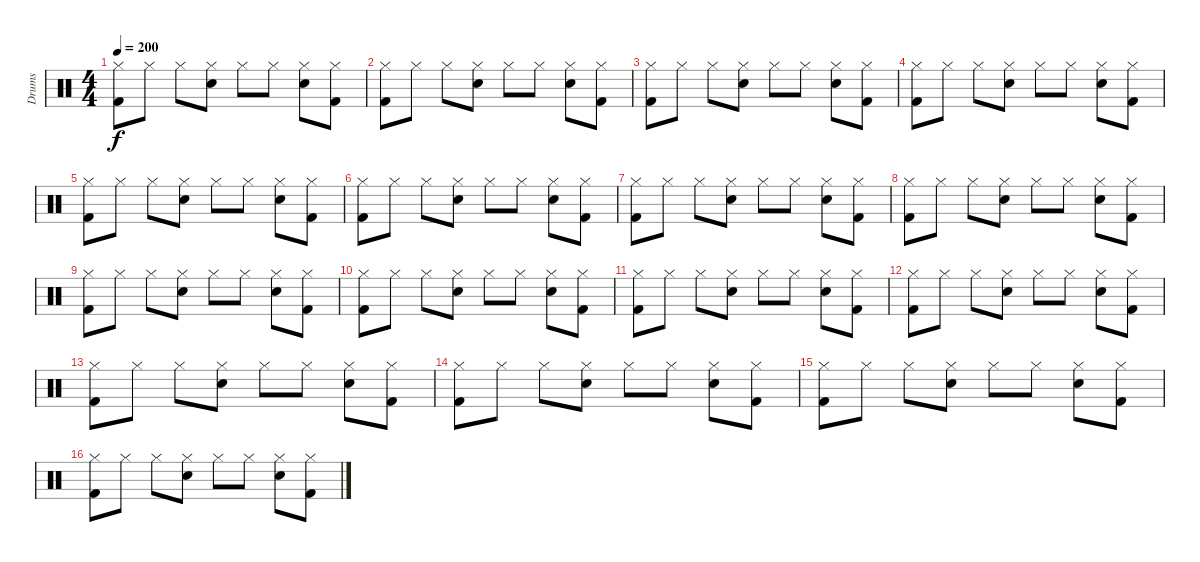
\track ("Drums" "Drums") {instrument percussion}
\staff {score}
\articulation defaults
\ts (4 4)
\tempo 200
\clef neutral
\ks c
("Hi-Hat (closed)" "Kick (hit) 2").8{dy f} "Hi-Hat (closed)".8 "Hi-Hat (closed)".8 ("Hi-Hat (closed)" "Electric Snare (hit)").8 "Hi-Hat (closed)".8 "Hi-Hat (closed)".8 ("Hi-Hat (closed)" "Electric Snare (hit)").8 ("Hi-Hat (closed)" "Kick (hit) 2").8 |
("Hi-Hat (closed)" "Kick (hit) 2").8 "Hi-Hat (closed)".8 "Hi-Hat (closed)".8 ("Hi-Hat (closed)" "Electric Snare (hit)").8 "Hi-Hat (closed)".8 "Hi-Hat (closed)".8 ("Hi-Hat (closed)" "Electric Snare (hit)").8 ("Hi-Hat (closed)" "Kick (hit) 2").8 |
("Hi-Hat (closed)" "Kick (hit) 2").8 "Hi-Hat (closed)".8 "Hi-Hat (closed)".8 ("Hi-Hat (closed)" "Electric Snare (hit)").8 "Hi-Hat (closed)".8 "Hi-Hat (closed)".8 ("Hi-Hat (closed)" "Electric Snare (hit)").8 ("Hi-Hat (closed)" "Kick (hit) 2").8 |
("Hi-Hat (closed)" "Kick (hit) 2").8 "Hi-Hat (closed)".8 "Hi-Hat (closed)".8 ("Hi-Hat (closed)" "Electric Snare (hit)").8 "Hi-Hat (closed)".8 "Hi-Hat (closed)".8 ("Hi-Hat (closed)" "Electric Snare (hit)").8 ("Hi-Hat (closed)" "Kick (hit) 2").8 |
("Hi-Hat (closed)" "Kick (hit) 2").8 "Hi-Hat (closed)".8 "Hi-Hat (closed)".8 ("Hi-Hat (closed)" "Electric Snare (hit)").8 "Hi-Hat (closed)".8 "Hi-Hat (closed)".8 ("Hi-Hat (closed)" "Electric Snare (hit)").8 ("Hi-Hat (closed)" "Kick (hit) 2").8 |
("Hi-Hat (closed)" "Kick (hit) 2").8 "Hi-Hat (closed)".8 "Hi-Hat (closed)".8 ("Hi-Hat (closed)" "Electric Snare (hit)").8 "Hi-Hat (closed)".8 "Hi-Hat (closed)".8 ("Hi-Hat (closed)" "Electric Snare (hit)").8 ("Hi-Hat (closed)" "Kick (hit) 2").8 |
("Hi-Hat (closed)" "Kick (hit) 2").8 "Hi-Hat (closed)".8 "Hi-Hat (closed)".8 ("Hi-Hat (closed)" "Electric Snare (hit)").8 "Hi-Hat (closed)".8 "Hi-Hat (closed)".8 ("Hi-Hat (closed)" "Electric Snare (hit)").8 ("Hi-Hat (closed)" "Kick (hit) 2").8 |
("Hi-Hat (closed)" "Kick (hit) 2").8 "Hi-Hat (closed)".8 "Hi-Hat (closed)".8 ("Hi-Hat (closed)" "Electric Snare (hit)").8 "Hi-Hat (closed)".8 "Hi-Hat (closed)".8 ("Hi-Hat (closed)" "Electric Snare (hit)").8 ("Hi-Hat (closed)" "Kick (hit) 2").8 |
("Hi-Hat (closed)" "Kick (hit) 2").8 "Hi-Hat (closed)".8 "Hi-Hat (closed)".8 ("Hi-Hat (closed)" "Electric Snare (hit)").8 "Hi-Hat (closed)".8 "Hi-Hat (closed)".8 ("Hi-Hat (closed)" "Electric Snare (hit)").8 ("Hi-Hat (closed)" "Kick (hit) 2").8 |
("Hi-Hat (closed)" "Kick (hit) 2").8 "Hi-Hat (closed)".8 "Hi-Hat (closed)".8 ("Hi-Hat (closed)" "Electric Snare (hit)").8 "Hi-Hat (closed)".8 "Hi-Hat (closed)".8 ("Hi-Hat (closed)" "Electric Snare (hit)").8 ("Hi-Hat (closed)" "Kick (hit) 2").8 |
("Hi-Hat (closed)" "Kick (hit) 2").8 "Hi-Hat (closed)".8 "Hi-Hat (closed)".8 ("Hi-Hat (closed)" "Electric Snare (hit)").8 "Hi-Hat (closed)".8 "Hi-Hat (closed)".8 ("Hi-Hat (closed)" "Electric Snare (hit)").8 ("Hi-Hat (closed)" "Kick (hit) 2").8 |
("Hi-Hat (closed)" "Kick (hit) 2").8 "Hi-Hat (closed)".8 "Hi-Hat (closed)".8 ("Hi-Hat (closed)" "Electric Snare (hit)").8 "Hi-Hat (closed)".8 "Hi-Hat (closed)".8 ("Hi-Hat (closed)" "Electric Snare (hit)").8 ("Hi-Hat (closed)" "Kick (hit) 2").8 |
("Hi-Hat (closed)" "Kick (hit) 2").8 "Hi-Hat (closed)".8 "Hi-Hat (closed)".8 ("Hi-Hat (closed)" "Electric Snare (hit)").8 "Hi-Hat (closed)".8 "Hi-Hat (closed)".8 ("Hi-Hat (closed)" "Electric Snare (hit)").8 ("Hi-Hat (closed)" "Kick (hit) 2").8 |
("Hi-Hat (closed)" "Kick (hit) 2").8 "Hi-Hat (closed)".8 "Hi-Hat (closed)".8 ("Hi-Hat (closed)" "Electric Snare (hit)").8 "Hi-Hat (closed)".8 "Hi-Hat (closed)".8 ("Hi-Hat (closed)" "Electric Snare (hit)").8 ("Hi-Hat (closed)" "Kick (hit) 2").8 |
("Hi-Hat (closed)" "Kick (hit) 2").8 "Hi-Hat (closed)".8 "Hi-Hat (closed)".8 ("Hi-Hat (closed)" "Electric Snare (hit)").8 "Hi-Hat (closed)".8 "Hi-Hat (closed)".8 ("Hi-Hat (closed)" "Electric Snare (hit)").8 ("Hi-Hat (closed)" "Kick (hit) 2").8 |
("Hi-Hat (closed)" "Kick (hit) 2").8 "Hi-Hat (closed)".8 "Hi-Hat (closed)".8 ("Hi-Hat (closed)" "Electric Snare (hit)").8 "Hi-Hat (closed)".8 "Hi-Hat (closed)".8 ("Hi-Hat (closed)" "Electric Snare (hit)").8 ("Hi-Hat (closed)" "Kick (hit) 2").8
